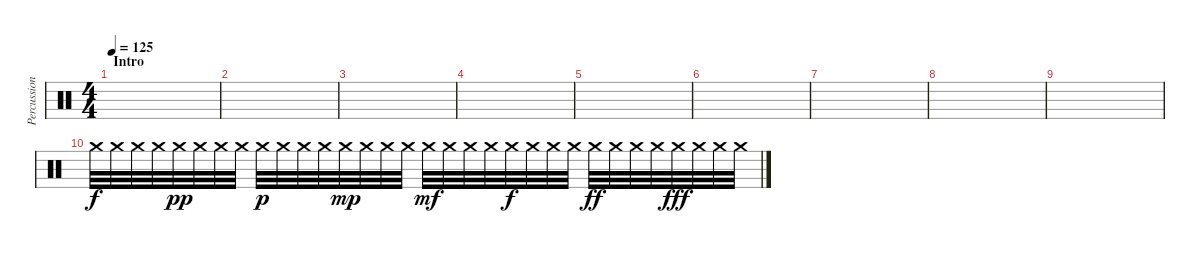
\track ("Percussion" "Percussion") {instrument percussion}
\staff {score}
\articulation defaults
\ts (4 4)
\section ("" "Intro")
\tempo 125
\clef neutral
\ks c
|
|
|
|
|
|
|
|
|
"Crash medium (hit)".32 "Crash medium (hit)".32 "Crash medium (hit)".32 "Crash medium (hit)".32 "Crash medium (hit)".32{dy pp} "Crash medium (hit)".32 "Crash medium (hit)".32 "Crash medium (hit)".32 "Crash medium (hit)".32{dy p} "Crash medium (hit)".32 "Crash medium (hit)".32 "Crash medium (hit)".32 "Crash medium (hit)".32{dy mp} "Crash medium (hit)".32 "Crash medium (hit)".32 "Crash medium (hit)".32 "Crash medium (hit)".32{dy mf} "Crash medium (hit)".32 "Crash medium (hit)".32 "Crash medium (hit)".32 "Crash medium (hit)".32{dy f} "Crash medium (hit)".32 "Crash medium (hit)".32 "Crash medium (hit)".32 "Crash medium (hit)".32{dy ff} "Crash medium (hit)".32 "Crash medium (hit)".32 "Crash medium (hit)".32 "Crash medium (hit)".32{dy fff} "Crash medium (hit)".32 "Crash medium (hit)".32 "Crash medium (hit)".32
